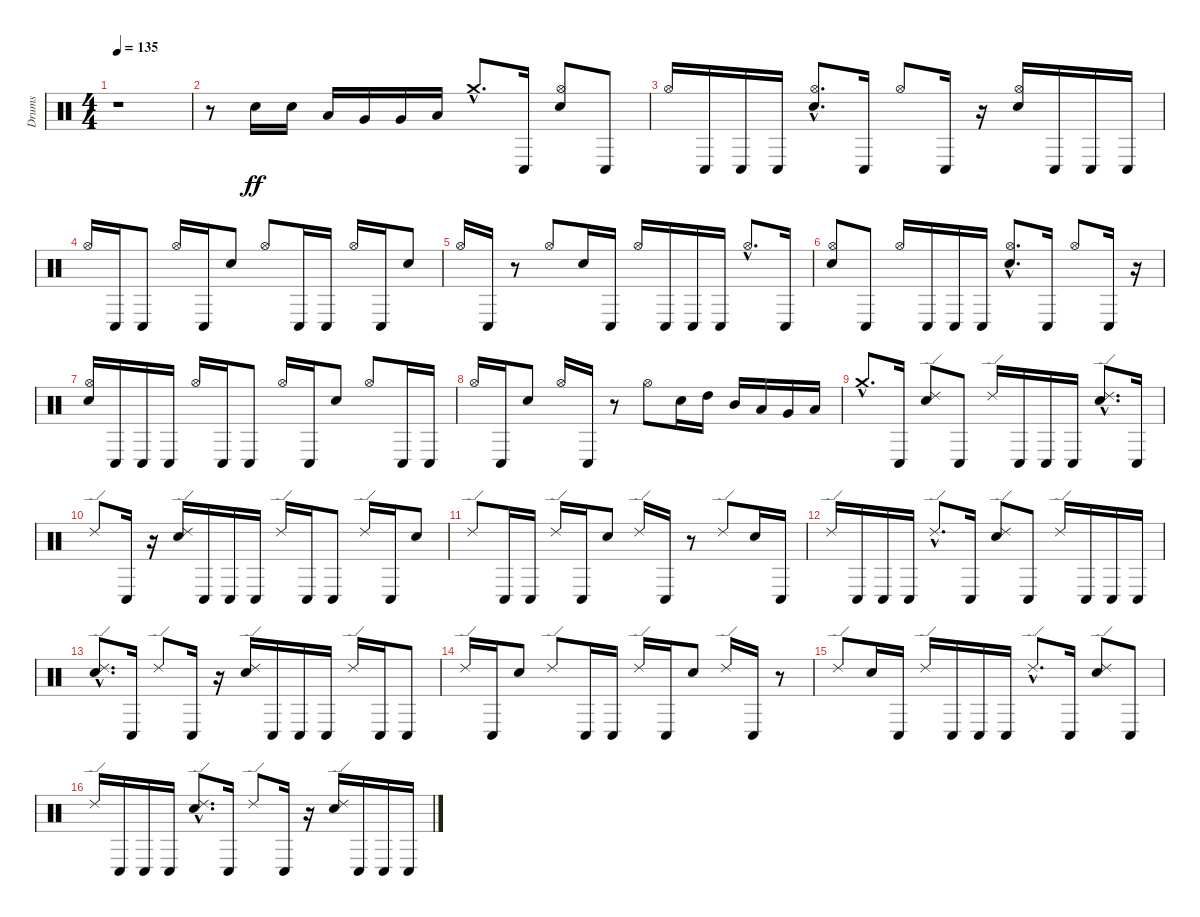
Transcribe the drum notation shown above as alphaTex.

\track ("Drums" "Drums") {instrument percussion}
\staff {score}
\articulation defaults
\ts (4 4)
\tempo 135
\clef neutral
\ks c
r.1{dy f} |
r.8 "Electric Snare (hit)".16{dy ff} "Electric Snare (hit)".16 "Low Tom (hit)".16 "Very Low Tom (hit)".16 "Very Low Tom (hit)".16 "Low Floor Tom (hit)".16 "Crash medium (hit)"{hac}.8{d} "Conga low (hit)".16 ("Electric Snare (hit)" "Hi-Hat (open)").8 "Conga low (hit)".8 |
"Hi-Hat (open)".16 "Conga low (hit)".16 "Conga low (hit)".16 "Conga low (hit)".16 ("Electric Snare (hit)"{hac} "Hi-Hat (open)"{hac}).8{d} "Conga low (hit)".16 "Hi-Hat (open)".8 "Conga low (hit)".16 r.16 ("Electric Snare (hit)" "Hi-Hat (open)").16 "Conga low (hit)".16 "Conga low (hit)".16 "Conga low (hit)".16 |
"Hi-Hat (open)".16 "Conga low (hit)".16 "Conga low (hit)".8 "Hi-Hat (open)".16 "Conga low (hit)".16 "Electric Snare (hit)".8 "Hi-Hat (open)".8 "Conga low (hit)".16 "Conga low (hit)".16 "Hi-Hat (open)".16 "Conga low (hit)".16 "Electric Snare (hit)".8 |
"Hi-Hat (open)".16 "Conga low (hit)".16 r.8 "Hi-Hat (open)".8 "Electric Snare (hit)".16 "Conga low (hit)".16 "Hi-Hat (open)".16 "Conga low (hit)".16 "Conga low (hit)".16 "Conga low (hit)".16 "Hi-Hat (open)"{hac}.8{d} "Conga low (hit)".16 |
("Electric Snare (hit)" "Hi-Hat (open)").8 "Conga low (hit)".8 "Hi-Hat (open)".16 "Conga low (hit)".16 "Conga low (hit)".16 "Conga low (hit)".16 ("Electric Snare (hit)"{hac} "Hi-Hat (open)"{hac}).8{d} "Conga low (hit)".16 "Hi-Hat (open)".8 "Conga low (hit)".16 r.16 |
("Electric Snare (hit)" "Hi-Hat (open)").16 "Conga low (hit)".16 "Conga low (hit)".16 "Conga low (hit)".16 "Hi-Hat (open)".16 "Conga low (hit)".16 "Conga low (hit)".8 "Hi-Hat (open)".16 "Conga low (hit)".16 "Electric Snare (hit)".8 "Hi-Hat (open)".8 "Conga low (hit)".16 "Conga low (hit)".16 |
"Hi-Hat (open)".16 "Conga low (hit)".16 "Electric Snare (hit)".8 "Hi-Hat (open)".16 "Conga low (hit)".16 r.8 "Hi-Hat (open)".8 "Electric Snare (hit)".16 "High Tom (hit)".16 "Mid Tom (hit)".16 "Low Tom (hit)".16 "Very Low Tom (hit)".16 "Low Floor Tom (hit)".16 |
"Crash medium (hit)"{hac}.8{d} "Conga low (hit)".16 ("Electric Snare (hit)" "Ride (edge) 2").8 "Conga low (hit)".8 "Ride (edge) 2".16 "Conga low (hit)".16 "Conga low (hit)".16 "Conga low (hit)".16 ("Electric Snare (hit)"{hac} "Ride (edge) 2"{hac}).8{d} "Conga low (hit)".16 |
"Ride (edge) 2".8 "Conga low (hit)".16 r.16 ("Electric Snare (hit)" "Ride (edge) 2").16 "Conga low (hit)".16 "Conga low (hit)".16 "Conga low (hit)".16 "Ride (edge) 2".16 "Conga low (hit)".16 "Conga low (hit)".8 "Ride (edge) 2".16 "Conga low (hit)".16 "Electric Snare (hit)".8 |
"Ride (edge) 2".8 "Conga low (hit)".16 "Conga low (hit)".16 "Ride (edge) 2".16 "Conga low (hit)".16 "Electric Snare (hit)".8 "Ride (edge) 2".16 "Conga low (hit)".16 r.8 "Ride (edge) 2".8 "Electric Snare (hit)".16 "Conga low (hit)".16 |
"Ride (edge) 2".16 "Conga low (hit)".16 "Conga low (hit)".16 "Conga low (hit)".16 "Ride (edge) 2"{hac}.8{d} "Conga low (hit)".16 ("Electric Snare (hit)" "Ride (edge) 2").8 "Conga low (hit)".8 "Ride (edge) 2".16 "Conga low (hit)".16 "Conga low (hit)".16 "Conga low (hit)".16 |
("Electric Snare (hit)"{hac} "Ride (edge) 2"{hac}).8{d} "Conga low (hit)".16 "Ride (edge) 2".8 "Conga low (hit)".16 r.16 ("Electric Snare (hit)" "Ride (edge) 2").16 "Conga low (hit)".16 "Conga low (hit)".16 "Conga low (hit)".16 "Ride (edge) 2".16 "Conga low (hit)".16 "Conga low (hit)".8 |
"Ride (edge) 2".16 "Conga low (hit)".16 "Electric Snare (hit)".8 "Ride (edge) 2".8 "Conga low (hit)".16 "Conga low (hit)".16 "Ride (edge) 2".16 "Conga low (hit)".16 "Electric Snare (hit)".8 "Ride (edge) 2".16 "Conga low (hit)".16 r.8 |
"Ride (edge) 2".8 "Electric Snare (hit)".16 "Conga low (hit)".16 "Ride (edge) 2".16 "Conga low (hit)".16 "Conga low (hit)".16 "Conga low (hit)".16 "Ride (edge) 2"{hac}.8{d} "Conga low (hit)".16 ("Electric Snare (hit)" "Ride (edge) 2").8 "Conga low (hit)".8 |
"Ride (edge) 2".16 "Conga low (hit)".16 "Conga low (hit)".16 "Conga low (hit)".16 ("Electric Snare (hit)"{hac} "Ride (edge) 2"{hac}).8{d} "Conga low (hit)".16 "Ride (edge) 2".8 "Conga low (hit)".16 r.16 ("Electric Snare (hit)" "Ride (edge) 2").16 "Conga low (hit)".16 "Conga low (hit)".16 "Conga low (hit)".16
